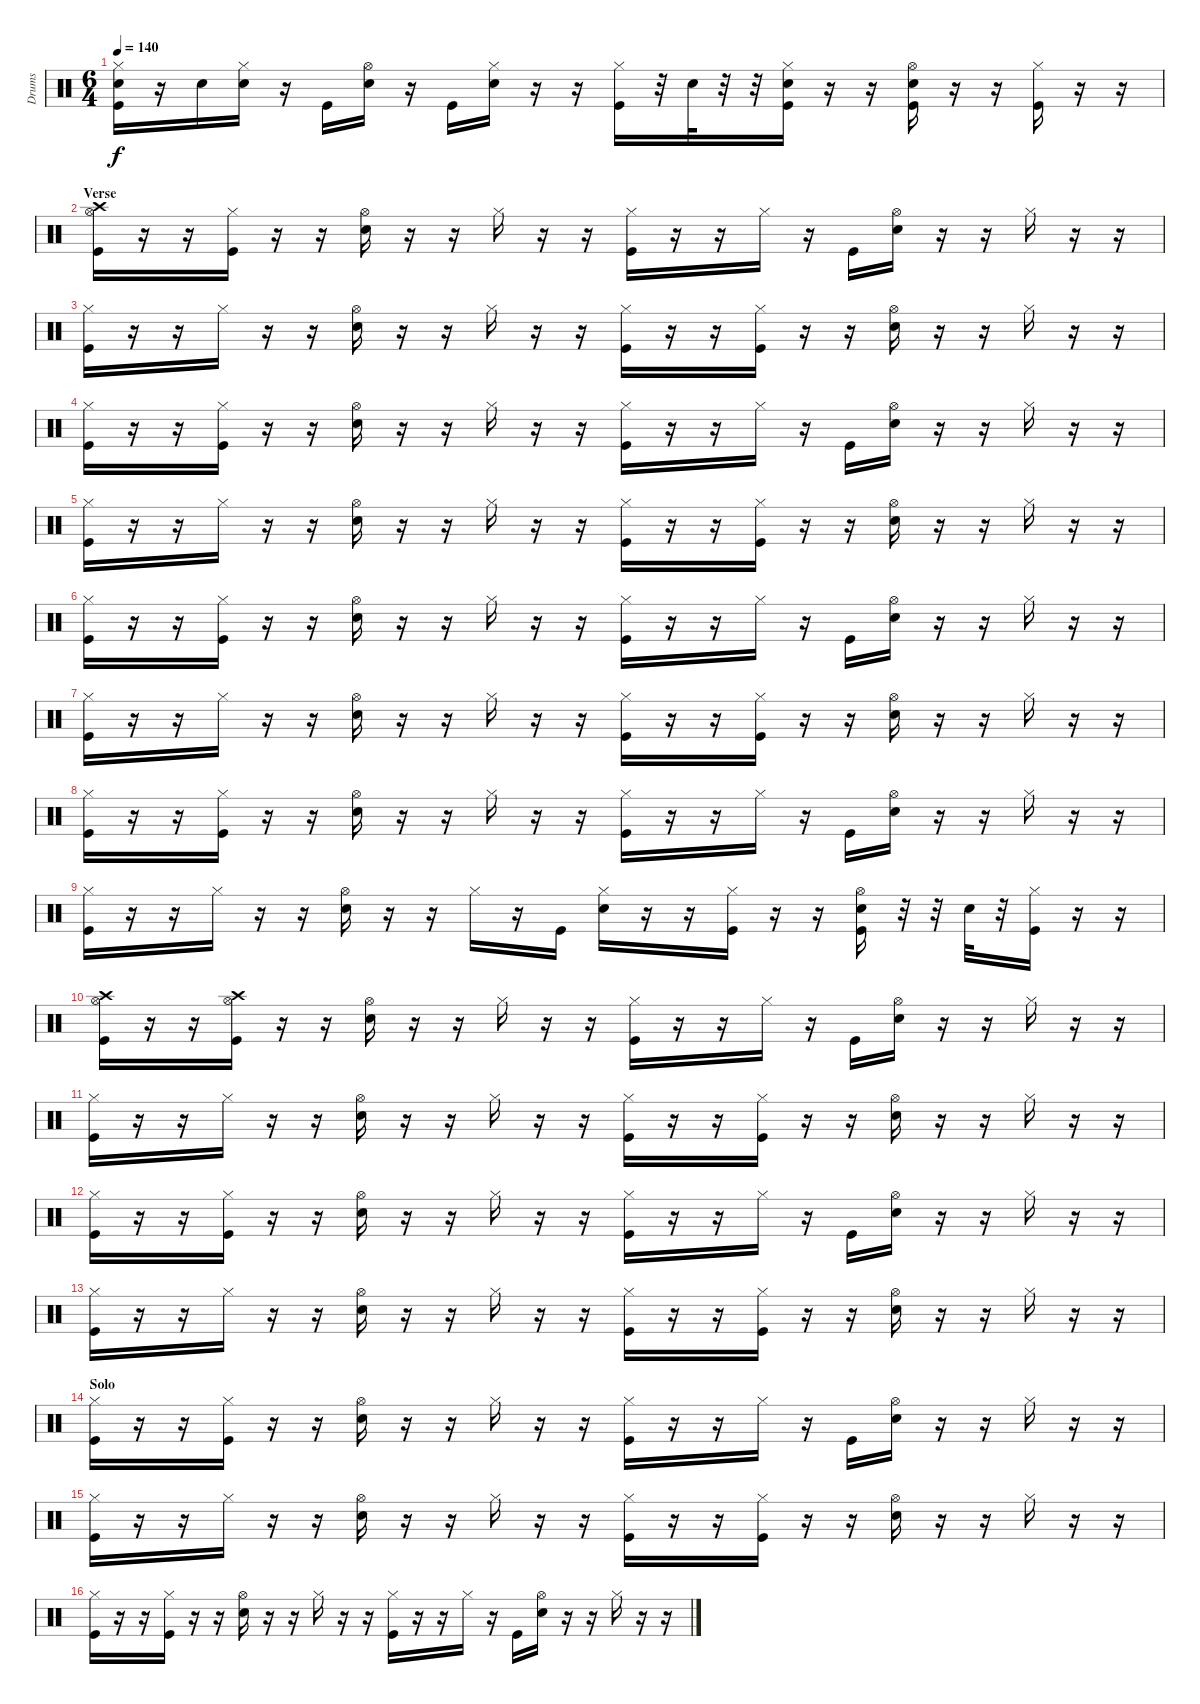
\track ("Drums" "Drums") {instrument percussion}
\staff {score}
\articulation defaults
\ts (6 4)
\tempo 140
\clef neutral
\ks c
("Hi-Hat (closed)" "Snare (hit) 2" "Kick (hit)").16{dy f} r.16 "Snare (hit) 2".16 ("Hi-Hat (closed)" "Snare (hit) 2").16 r.16 "Kick (hit)".16 ("Hi-Hat (open)" "Snare (hit) 2").16 r.16 "Kick (hit)".16 ("Hi-Hat (closed)" "Snare (hit) 2").16 r.16 r.16 ("Hi-Hat (closed)" "Kick (hit)").16 r.32 "Snare (hit) 2".32 r.32 r.32 ("Hi-Hat (closed)" "Snare (hit) 2" "Kick (hit)").16 r.16 r.16 ("Hi-Hat (open)" "Snare (hit) 2" "Kick (hit)").16 r.16 r.16 ("Hi-Hat (closed)" "Kick (hit)").16 r.16 r.16 |
\section ("" "Verse")
("Hi-Hat (open)" "Crash high (hit)" "Kick (hit)").16 r.16 r.16 ("Hi-Hat (closed)" "Kick (hit)").16 r.16 r.16 ("Hi-Hat (open)" "Snare (hit) 2").16 r.16 r.16 "Hi-Hat (closed)".16 r.16 r.16 ("Hi-Hat (closed)" "Kick (hit)").16 r.16 r.16 "Hi-Hat (closed)".16 r.16 "Kick (hit)".16 ("Hi-Hat (open)" "Snare (hit) 2").16 r.16 r.16 "Hi-Hat (closed)".16 r.16 r.16 |
("Hi-Hat (closed)" "Kick (hit)").16 r.16 r.16 "Hi-Hat (closed)".16 r.16 r.16 ("Hi-Hat (open)" "Snare (hit) 2").16 r.16 r.16 "Hi-Hat (closed)".16 r.16 r.16 ("Hi-Hat (closed)" "Kick (hit)").16 r.16 r.16 ("Hi-Hat (closed)" "Kick (hit)").16 r.16 r.16 ("Hi-Hat (open)" "Snare (hit) 2").16 r.16 r.16 "Hi-Hat (closed)".16 r.16 r.16 |
("Hi-Hat (closed)" "Kick (hit)").16 r.16 r.16 ("Hi-Hat (closed)" "Kick (hit)").16 r.16 r.16 ("Hi-Hat (open)" "Snare (hit) 2").16 r.16 r.16 "Hi-Hat (closed)".16 r.16 r.16 ("Hi-Hat (closed)" "Kick (hit)").16 r.16 r.16 "Hi-Hat (closed)".16 r.16 "Kick (hit)".16 ("Hi-Hat (open)" "Snare (hit) 2").16 r.16 r.16 "Hi-Hat (closed)".16 r.16 r.16 |
("Hi-Hat (closed)" "Kick (hit)").16 r.16 r.16 "Hi-Hat (closed)".16 r.16 r.16 ("Hi-Hat (open)" "Snare (hit) 2").16 r.16 r.16 "Hi-Hat (closed)".16 r.16 r.16 ("Hi-Hat (closed)" "Kick (hit)").16 r.16 r.16 ("Hi-Hat (closed)" "Kick (hit)").16 r.16 r.16 ("Hi-Hat (open)" "Snare (hit) 2").16 r.16 r.16 "Hi-Hat (closed)".16 r.16 r.16 |
("Hi-Hat (closed)" "Kick (hit)").16 r.16 r.16 ("Hi-Hat (closed)" "Kick (hit)").16 r.16 r.16 ("Hi-Hat (open)" "Snare (hit) 2").16 r.16 r.16 "Hi-Hat (closed)".16 r.16 r.16 ("Hi-Hat (closed)" "Kick (hit)").16 r.16 r.16 "Hi-Hat (closed)".16 r.16 "Kick (hit)".16 ("Hi-Hat (open)" "Snare (hit) 2").16 r.16 r.16 "Hi-Hat (closed)".16 r.16 r.16 |
("Hi-Hat (closed)" "Kick (hit)").16 r.16 r.16 "Hi-Hat (closed)".16 r.16 r.16 ("Hi-Hat (open)" "Snare (hit) 2").16 r.16 r.16 "Hi-Hat (closed)".16 r.16 r.16 ("Hi-Hat (closed)" "Kick (hit)").16 r.16 r.16 ("Hi-Hat (closed)" "Kick (hit)").16 r.16 r.16 ("Hi-Hat (open)" "Snare (hit) 2").16 r.16 r.16 "Hi-Hat (closed)".16 r.16 r.16 |
("Hi-Hat (closed)" "Kick (hit)").16 r.16 r.16 ("Hi-Hat (closed)" "Kick (hit)").16 r.16 r.16 ("Hi-Hat (open)" "Snare (hit) 2").16 r.16 r.16 "Hi-Hat (closed)".16 r.16 r.16 ("Hi-Hat (closed)" "Kick (hit)").16 r.16 r.16 "Hi-Hat (closed)".16 r.16 "Kick (hit)".16 ("Hi-Hat (open)" "Snare (hit) 2").16 r.16 r.16 "Hi-Hat (closed)".16 r.16 r.16 |
("Hi-Hat (closed)" "Kick (hit)").16 r.16 r.16 "Hi-Hat (closed)".16 r.16 r.16 ("Hi-Hat (open)" "Snare (hit) 2").16 r.16 r.16 "Hi-Hat (closed)".16 r.16 "Kick (hit)".16 ("Hi-Hat (closed)" "Snare (hit) 2").16 r.16 r.16 ("Hi-Hat (closed)" "Kick (hit)").16 r.16 r.16 ("Hi-Hat (open)" "Snare (hit) 2" "Kick (hit)").16 r.32 r.32 "Snare (hit) 2".32 r.32 ("Hi-Hat (closed)" "Kick (hit)").16 r.16 r.16 |
("Hi-Hat (open)" "Crash high (hit)" "Kick (hit)").16 r.16 r.16 ("Hi-Hat (open)" "Crash high (hit)" "Kick (hit)").16 r.16 r.16 ("Hi-Hat (open)" "Snare (hit) 2").16 r.16 r.16 "Hi-Hat (closed)".16 r.16 r.16 ("Hi-Hat (closed)" "Kick (hit)").16 r.16 r.16 "Hi-Hat (closed)".16 r.16 "Kick (hit)".16 ("Hi-Hat (open)" "Snare (hit) 2").16 r.16 r.16 "Hi-Hat (closed)".16 r.16 r.16 |
("Hi-Hat (closed)" "Kick (hit)").16 r.16 r.16 "Hi-Hat (closed)".16 r.16 r.16 ("Hi-Hat (open)" "Snare (hit) 2").16 r.16 r.16 "Hi-Hat (closed)".16 r.16 r.16 ("Hi-Hat (closed)" "Kick (hit)").16 r.16 r.16 ("Hi-Hat (closed)" "Kick (hit)").16 r.16 r.16 ("Hi-Hat (open)" "Snare (hit) 2").16 r.16 r.16 "Hi-Hat (closed)".16 r.16 r.16 |
("Hi-Hat (closed)" "Kick (hit)").16 r.16 r.16 ("Hi-Hat (closed)" "Kick (hit)").16 r.16 r.16 ("Hi-Hat (open)" "Snare (hit) 2").16 r.16 r.16 "Hi-Hat (closed)".16 r.16 r.16 ("Hi-Hat (closed)" "Kick (hit)").16 r.16 r.16 "Hi-Hat (closed)".16 r.16 "Kick (hit)".16 ("Hi-Hat (open)" "Snare (hit) 2").16 r.16 r.16 "Hi-Hat (closed)".16 r.16 r.16 |
("Hi-Hat (closed)" "Kick (hit)").16 r.16 r.16 "Hi-Hat (closed)".16 r.16 r.16 ("Hi-Hat (open)" "Snare (hit) 2").16 r.16 r.16 "Hi-Hat (closed)".16 r.16 r.16 ("Hi-Hat (closed)" "Kick (hit)").16 r.16 r.16 ("Hi-Hat (closed)" "Kick (hit)").16 r.16 r.16 ("Hi-Hat (open)" "Snare (hit) 2").16 r.16 r.16 "Hi-Hat (closed)".16 r.16 r.16 |
\section ("" "Solo")
("Hi-Hat (closed)" "Kick (hit)").16 r.16 r.16 ("Hi-Hat (closed)" "Kick (hit)").16 r.16 r.16 ("Hi-Hat (open)" "Snare (hit) 2").16 r.16 r.16 "Hi-Hat (closed)".16 r.16 r.16 ("Hi-Hat (closed)" "Kick (hit)").16 r.16 r.16 "Hi-Hat (closed)".16 r.16 "Kick (hit)".16 ("Hi-Hat (open)" "Snare (hit) 2").16 r.16 r.16 "Hi-Hat (closed)".16 r.16 r.16 |
("Hi-Hat (closed)" "Kick (hit)").16 r.16 r.16 "Hi-Hat (closed)".16 r.16 r.16 ("Hi-Hat (open)" "Snare (hit) 2").16 r.16 r.16 "Hi-Hat (closed)".16 r.16 r.16 ("Hi-Hat (closed)" "Kick (hit)").16 r.16 r.16 ("Hi-Hat (closed)" "Kick (hit)").16 r.16 r.16 ("Hi-Hat (open)" "Snare (hit) 2").16 r.16 r.16 "Hi-Hat (closed)".16 r.16 r.16 |
("Hi-Hat (closed)" "Kick (hit)").16 r.16 r.16 ("Hi-Hat (closed)" "Kick (hit)").16 r.16 r.16 ("Hi-Hat (open)" "Snare (hit) 2").16 r.16 r.16 "Hi-Hat (closed)".16 r.16 r.16 ("Hi-Hat (closed)" "Kick (hit)").16 r.16 r.16 "Hi-Hat (closed)".16 r.16 "Kick (hit)".16 ("Hi-Hat (open)" "Snare (hit) 2").16 r.16 r.16 "Hi-Hat (closed)".16 r.16 r.16
